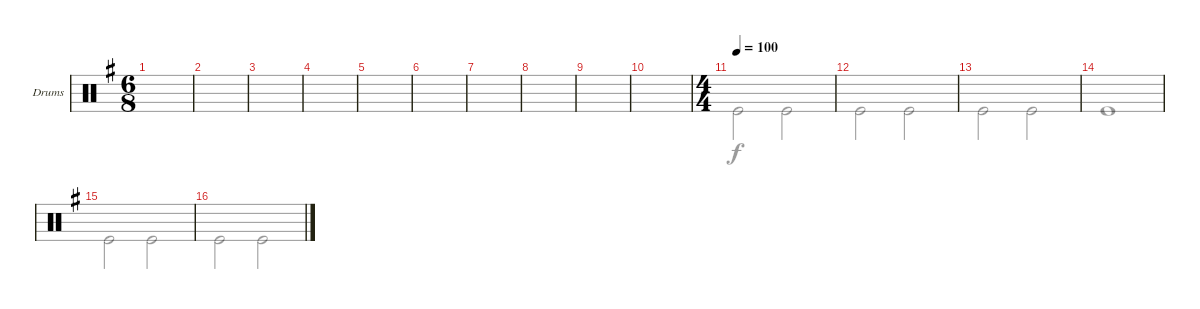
\defaultSystemsLayout 4
\bracketExtendMode groupsimilarinstruments
\firstSystemTrackNameOrientation horizontal
\otherSystemsTrackNameOrientation horizontal
\track ("Drumkit" "Drums") {instrument percussion}
\staff {score}
\articulation defaults
\voice
\ts (6 8)
\tempo (80 hide)
\clef neutral
\ks g
|
|
|
|
|
|
|
|
|
|
\ts (4 4)
\tempo 100
|
|
|
|
|
\voice
\clef neutral
\ks g
|
|
|
|
|
|
|
|
|
|
"Kick (hit)".2 "Kick (hit)".2 |
"Kick (hit)".2 "Kick (hit)".2 |
"Kick (hit)".2 "Kick (hit)".2 |
"Kick (hit)".1 |
"Kick (hit)".2 "Kick (hit)".2 |
"Kick (hit)".2 "Kick (hit)".2
